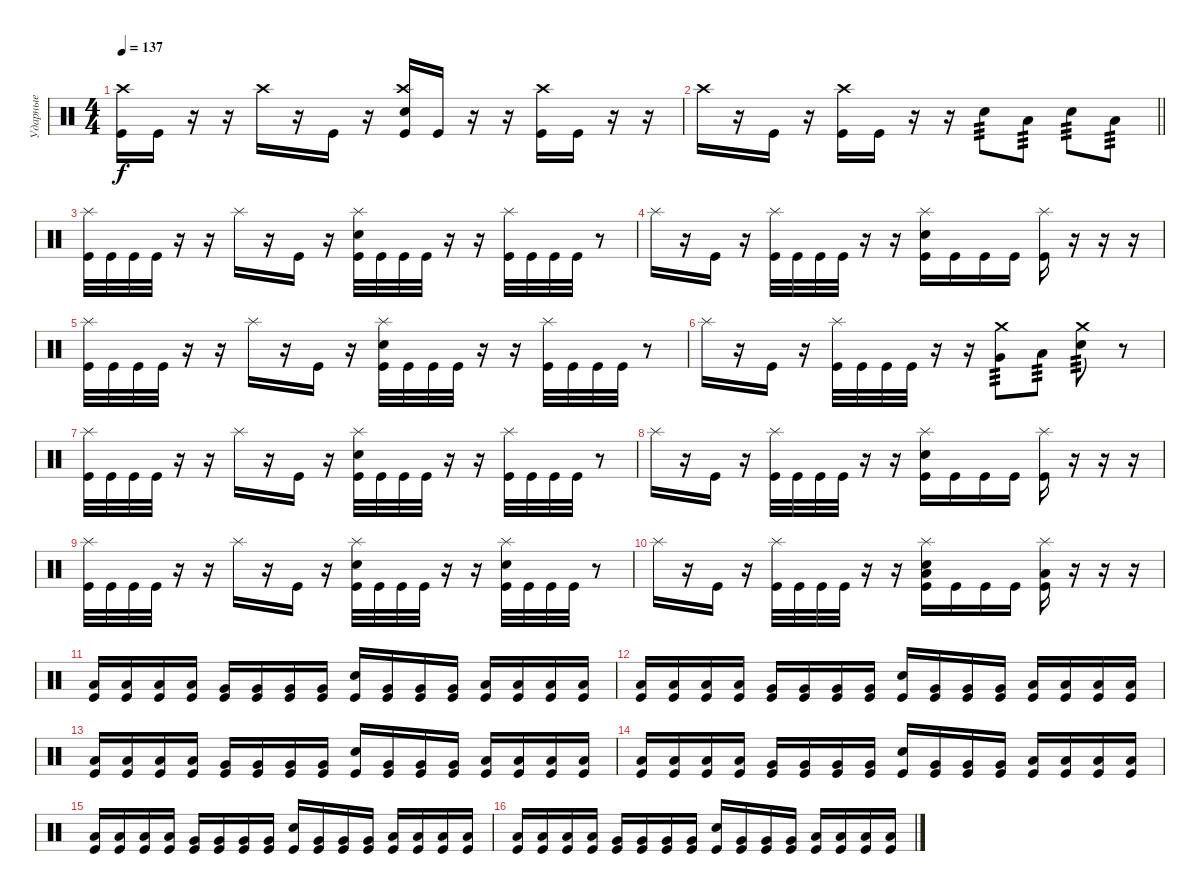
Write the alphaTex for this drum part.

\track ("Ударные" "Ударные") {instrument percussion}
\staff {score}
\articulation defaults
\ts (4 4)
\tempo 137
\clef neutral
\ks c
("Kick (hit)" "Crash high (hit)").16{dy f} "Kick (hit)".16 r.16 r.16 "Crash high (hit)".16 r.16 "Kick (hit)".16 r.16 ("Kick (hit)" "Snare (hit) 2" "Crash high (hit)").16 "Kick (hit)".16 r.16 r.16 ("Kick (hit)" "Crash high (hit)").16 "Kick (hit)".16 r.16 r.16 |
\barLineRight lightlight "Crash high (hit)".16
r.16 "Kick (hit)".16 r.16 ("Kick (hit)" "Crash high (hit)").16 "Kick (hit)".16 r.16 r.16 "Snare (hit) 2".8{tp 3} "Low Tom (hit)".8{tp 3} "Snare (hit) 2".8{tp 3} "Low Tom (hit)".8{tp 3} |
("Kick (hit)" "Splash (hit)").32 "Kick (hit)".32 "Kick (hit)".32 "Kick (hit)".32 r.16 r.16 "Splash (hit)".16 r.16 "Kick (hit)".16 r.16 ("Kick (hit)" "Snare (hit) 2" "Splash (hit)").32 "Kick (hit)".32 "Kick (hit)".32 "Kick (hit)".32 r.16 r.16 ("Kick (hit)" "Splash (hit)").32 "Kick (hit)".32 "Kick (hit)".32 "Kick (hit)".32 r.8 |
"Splash (hit)".16 r.16 "Kick (hit)".16 r.16 ("Kick (hit)" "Splash (hit)").32 "Kick (hit)".32 "Kick (hit)".32 "Kick (hit)".32 r.16 r.16 ("Kick (hit)" "Snare (hit) 2" "Splash (hit)").16 "Kick (hit)".16 "Kick (hit)".16 "Kick (hit)".16 ("Kick (hit)" "Splash (hit)").16 r.16 r.16 r.16 |
("Kick (hit)" "Splash (hit)").32 "Kick (hit)".32 "Kick (hit)".32 "Kick (hit)".32 r.16 r.16 "Splash (hit)".16 r.16 "Kick (hit)".16 r.16 ("Kick (hit)" "Snare (hit) 2" "Splash (hit)").32 "Kick (hit)".32 "Kick (hit)".32 "Kick (hit)".32 r.16 r.16 ("Kick (hit)" "Splash (hit)").32 "Kick (hit)".32 "Kick (hit)".32 "Kick (hit)".32 r.8 |
"Splash (hit)".16 r.16 "Kick (hit)".16 r.16 ("Kick (hit)" "Splash (hit)").32 "Kick (hit)".32 "Kick (hit)".32 "Kick (hit)".32 r.16 r.16 ("Very Low Tom (hit)" "Crash medium (hit)").8{tp 3} "Low Tom (hit)".8{tp 3} ("Snare (hit) 2" "Crash medium (hit)").8{tp 3} r.8 |
("Kick (hit)" "Splash (hit)").32 "Kick (hit)".32 "Kick (hit)".32 "Kick (hit)".32 r.16 r.16 "Splash (hit)".16 r.16 "Kick (hit)".16 r.16 ("Kick (hit)" "Snare (hit) 2" "Splash (hit)").32 "Kick (hit)".32 "Kick (hit)".32 "Kick (hit)".32 r.16 r.16 ("Kick (hit)" "Splash (hit)").32 "Kick (hit)".32 "Kick (hit)".32 "Kick (hit)".32 r.8 |
"Splash (hit)".16 r.16 "Kick (hit)".16 r.16 ("Kick (hit)" "Splash (hit)").32 "Kick (hit)".32 "Kick (hit)".32 "Kick (hit)".32 r.16 r.16 ("Kick (hit)" "Snare (hit) 2" "Splash (hit)").16 "Kick (hit)".16 "Kick (hit)".16 "Kick (hit)".16 ("Kick (hit)" "Splash (hit)").16 r.16 r.16 r.16 |
("Kick (hit)" "Splash (hit)").32 "Kick (hit)".32 "Kick (hit)".32 "Kick (hit)".32 r.16 r.16 "Splash (hit)".16 r.16 "Kick (hit)".16 r.16 ("Kick (hit)" "Snare (hit) 2" "Splash (hit)").32 "Kick (hit)".32 "Kick (hit)".32 "Kick (hit)".32 r.16 r.16 ("Kick (hit)" "Snare (hit) 2" "Splash (hit)").32 "Kick (hit)".32 "Kick (hit)".32 "Kick (hit)".32 r.8 |
"Splash (hit)".16 r.16 "Kick (hit)".16 r.16 ("Kick (hit)" "Splash (hit)").32 "Kick (hit)".32 "Kick (hit)".32 "Kick (hit)".32 r.16 r.16 ("Kick (hit)" "Snare (hit) 2" "Splash (hit)" "Low Tom (hit)").16 "Kick (hit)".16 "Kick (hit)".16 "Kick (hit)".16 ("Kick (hit)" "Splash (hit)" "Low Tom (hit)").16 r.16 r.16 r.16 |
("Kick (hit)" "Low Tom (hit)").16 ("Kick (hit)" "Low Tom (hit)").16 ("Kick (hit)" "Low Tom (hit)").16 ("Kick (hit)" "Low Tom (hit)").16 ("Kick (hit)" "Very Low Tom (hit)").16 ("Kick (hit)" "Very Low Tom (hit)").16 ("Kick (hit)" "Very Low Tom (hit)").16 ("Kick (hit)" "Very Low Tom (hit)").16 ("Kick (hit)" "Snare (hit) 2").16 ("Kick (hit)" "Very Low Tom (hit)").16 ("Kick (hit)" "Very Low Tom (hit)").16 ("Kick (hit)" "Very Low Tom (hit)").16 ("Kick (hit)" "Low Tom (hit)").16 ("Kick (hit)" "Low Tom (hit)").16 ("Kick (hit)" "Low Tom (hit)").16 ("Kick (hit)" "Low Tom (hit)").16 |
("Kick (hit)" "Low Tom (hit)").16 ("Kick (hit)" "Low Tom (hit)").16 ("Kick (hit)" "Low Tom (hit)").16 ("Kick (hit)" "Low Tom (hit)").16 ("Kick (hit)" "Very Low Tom (hit)").16 ("Kick (hit)" "Very Low Tom (hit)").16 ("Kick (hit)" "Very Low Tom (hit)").16 ("Kick (hit)" "Very Low Tom (hit)").16 ("Kick (hit)" "Snare (hit) 2").16 ("Kick (hit)" "Very Low Tom (hit)").16 ("Kick (hit)" "Very Low Tom (hit)").16 ("Kick (hit)" "Very Low Tom (hit)").16 ("Kick (hit)" "Low Tom (hit)").16 ("Kick (hit)" "Low Tom (hit)").16 ("Kick (hit)" "Low Tom (hit)").16 ("Kick (hit)" "Low Tom (hit)").16 |
("Kick (hit)" "Low Tom (hit)").16 ("Kick (hit)" "Low Tom (hit)").16 ("Kick (hit)" "Low Tom (hit)").16 ("Kick (hit)" "Low Tom (hit)").16 ("Kick (hit)" "Very Low Tom (hit)").16 ("Kick (hit)" "Very Low Tom (hit)").16 ("Kick (hit)" "Very Low Tom (hit)").16 ("Kick (hit)" "Very Low Tom (hit)").16 ("Kick (hit)" "Snare (hit) 2").16 ("Kick (hit)" "Very Low Tom (hit)").16 ("Kick (hit)" "Very Low Tom (hit)").16 ("Kick (hit)" "Very Low Tom (hit)").16 ("Kick (hit)" "Low Tom (hit)").16 ("Kick (hit)" "Low Tom (hit)").16 ("Kick (hit)" "Low Tom (hit)").16 ("Kick (hit)" "Low Tom (hit)").16 |
("Kick (hit)" "Low Tom (hit)").16 ("Kick (hit)" "Low Tom (hit)").16 ("Kick (hit)" "Low Tom (hit)").16 ("Kick (hit)" "Low Tom (hit)").16 ("Kick (hit)" "Very Low Tom (hit)").16 ("Kick (hit)" "Very Low Tom (hit)").16 ("Kick (hit)" "Very Low Tom (hit)").16 ("Kick (hit)" "Very Low Tom (hit)").16 ("Kick (hit)" "Snare (hit) 2").16 ("Kick (hit)" "Very Low Tom (hit)").16 ("Kick (hit)" "Very Low Tom (hit)").16 ("Kick (hit)" "Very Low Tom (hit)").16 ("Kick (hit)" "Low Tom (hit)").16 ("Kick (hit)" "Low Tom (hit)").16 ("Kick (hit)" "Low Tom (hit)").16 ("Kick (hit)" "Low Tom (hit)").16 |
("Kick (hit)" "Low Tom (hit)").16 ("Kick (hit)" "Low Tom (hit)").16 ("Kick (hit)" "Low Tom (hit)").16 ("Kick (hit)" "Low Tom (hit)").16 ("Kick (hit)" "Very Low Tom (hit)").16 ("Kick (hit)" "Very Low Tom (hit)").16 ("Kick (hit)" "Very Low Tom (hit)").16 ("Kick (hit)" "Very Low Tom (hit)").16 ("Kick (hit)" "Snare (hit) 2").16 ("Kick (hit)" "Very Low Tom (hit)").16 ("Kick (hit)" "Very Low Tom (hit)").16 ("Kick (hit)" "Very Low Tom (hit)").16 ("Kick (hit)" "Low Tom (hit)").16 ("Kick (hit)" "Low Tom (hit)").16 ("Kick (hit)" "Low Tom (hit)").16 ("Kick (hit)" "Low Tom (hit)").16 |
("Kick (hit)" "Low Tom (hit)").16 ("Kick (hit)" "Low Tom (hit)").16 ("Kick (hit)" "Low Tom (hit)").16 ("Kick (hit)" "Low Tom (hit)").16 ("Kick (hit)" "Very Low Tom (hit)").16 ("Kick (hit)" "Very Low Tom (hit)").16 ("Kick (hit)" "Very Low Tom (hit)").16 ("Kick (hit)" "Very Low Tom (hit)").16 ("Kick (hit)" "Snare (hit) 2").16 ("Kick (hit)" "Very Low Tom (hit)").16 ("Kick (hit)" "Very Low Tom (hit)").16 ("Kick (hit)" "Very Low Tom (hit)").16 ("Kick (hit)" "Low Tom (hit)").16 ("Kick (hit)" "Low Tom (hit)").16 ("Kick (hit)" "Low Tom (hit)").16 ("Kick (hit)" "Low Tom (hit)").16
